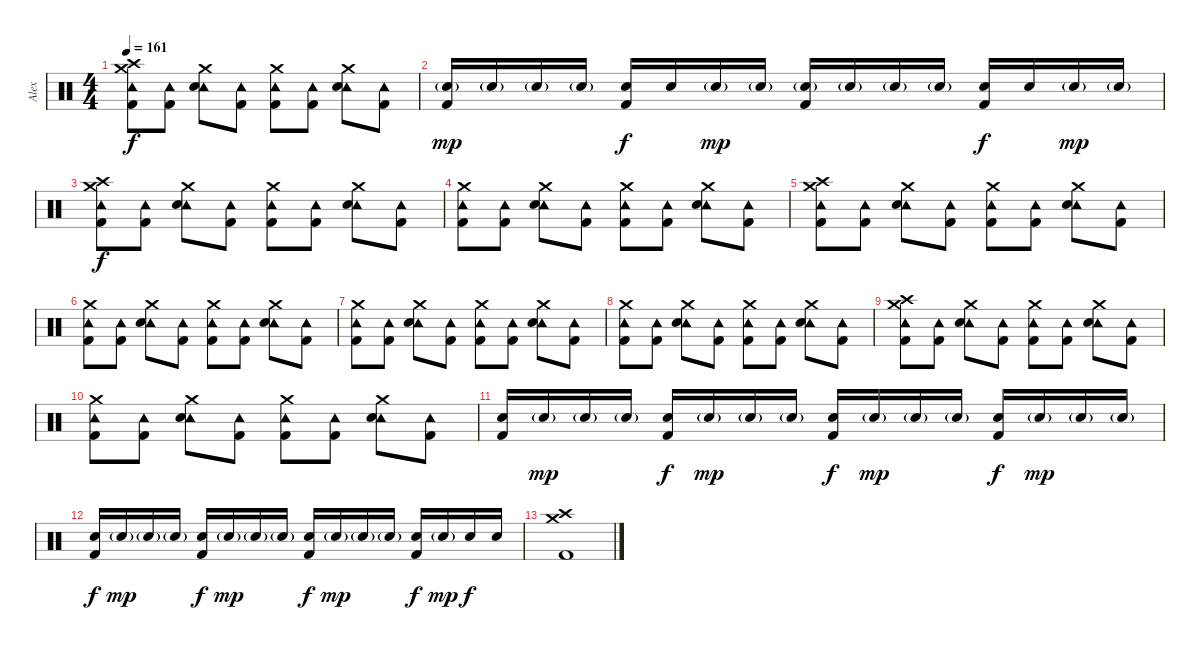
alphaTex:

\track ("Alex" "Alex") {instrument percussion}
\staff
\articulation defaults
\ts (4 4)
\tempo 161
\clef neutral
\ks c
("Crash medium (hit)" "Crash high (hit)" "Tambourine (hit)" "Kick (hit) 2").8{dy f} ("Tambourine (hit)" "Kick (hit) 2").8 ("Crash medium (hit)" "Tambourine (hit)" "Electric Snare (hit)").8 ("Tambourine (hit)" "Kick (hit) 2").8 ("Crash medium (hit)" "Tambourine (hit)" "Kick (hit) 2").8 ("Tambourine (hit)" "Kick (hit) 2").8 ("Crash medium (hit)" "Tambourine (hit)" "Electric Snare (hit)").8 ("Tambourine (hit)" "Kick (hit) 2").8 |
("Electric Snare (hit)"{g} "Kick (hit) 2").16{dy mp} "Electric Snare (hit)"{g}.16 "Electric Snare (hit)"{g}.16 "Electric Snare (hit)"{g}.16 ("Electric Snare (hit)" "Kick (hit) 2").16{dy f} "Electric Snare (hit)".16 "Electric Snare (hit)"{g}.16{dy mp} "Electric Snare (hit)"{g}.16 ("Electric Snare (hit)"{g} "Kick (hit) 2").16 "Electric Snare (hit)"{g}.16 "Electric Snare (hit)"{g}.16 "Electric Snare (hit)"{g}.16 ("Electric Snare (hit)" "Kick (hit) 2").16{dy f} "Electric Snare (hit)".16 "Electric Snare (hit)"{g}.16{dy mp} "Electric Snare (hit)"{g}.16 |
("Crash medium (hit)" "Crash high (hit)" "Tambourine (hit)" "Kick (hit) 2").8{dy f} ("Tambourine (hit)" "Kick (hit) 2").8 ("Crash medium (hit)" "Tambourine (hit)" "Electric Snare (hit)").8 ("Tambourine (hit)" "Kick (hit) 2").8 ("Crash medium (hit)" "Tambourine (hit)" "Kick (hit) 2").8 ("Tambourine (hit)" "Kick (hit) 2").8 ("Crash medium (hit)" "Tambourine (hit)" "Electric Snare (hit)").8 ("Tambourine (hit)" "Kick (hit) 2").8 |
("Crash medium (hit)" "Tambourine (hit)" "Kick (hit) 2").8 ("Tambourine (hit)" "Kick (hit) 2").8 ("Crash medium (hit)" "Tambourine (hit)" "Electric Snare (hit)").8 ("Tambourine (hit)" "Kick (hit) 2").8 ("Crash medium (hit)" "Tambourine (hit)" "Kick (hit) 2").8 ("Tambourine (hit)" "Kick (hit) 2").8 ("Crash medium (hit)" "Tambourine (hit)" "Electric Snare (hit)").8 ("Tambourine (hit)" "Kick (hit) 2").8 |
("Crash medium (hit)" "Crash high (hit)" "Tambourine (hit)" "Kick (hit) 2").8 ("Tambourine (hit)" "Kick (hit) 2").8 ("Crash medium (hit)" "Tambourine (hit)" "Electric Snare (hit)").8 ("Tambourine (hit)" "Kick (hit) 2").8 ("Crash medium (hit)" "Tambourine (hit)" "Kick (hit) 2").8 ("Tambourine (hit)" "Kick (hit) 2").8 ("Crash medium (hit)" "Tambourine (hit)" "Electric Snare (hit)").8 ("Tambourine (hit)" "Kick (hit) 2").8 |
("Crash medium (hit)" "Tambourine (hit)" "Kick (hit) 2").8 ("Tambourine (hit)" "Kick (hit) 2").8 ("Crash medium (hit)" "Tambourine (hit)" "Electric Snare (hit)").8 ("Tambourine (hit)" "Kick (hit) 2").8 ("Crash medium (hit)" "Tambourine (hit)" "Kick (hit) 2").8 ("Tambourine (hit)" "Kick (hit) 2").8 ("Crash medium (hit)" "Tambourine (hit)" "Electric Snare (hit)").8 ("Tambourine (hit)" "Kick (hit) 2").8 |
("Crash medium (hit)" "Tambourine (hit)" "Kick (hit) 2").8 ("Tambourine (hit)" "Kick (hit) 2").8 ("Crash medium (hit)" "Tambourine (hit)" "Electric Snare (hit)").8 ("Tambourine (hit)" "Kick (hit) 2").8 ("Crash medium (hit)" "Tambourine (hit)" "Kick (hit) 2").8 ("Tambourine (hit)" "Kick (hit) 2").8 ("Crash medium (hit)" "Tambourine (hit)" "Electric Snare (hit)").8 ("Tambourine (hit)" "Kick (hit) 2").8 |
("Crash medium (hit)" "Tambourine (hit)" "Kick (hit) 2").8 ("Tambourine (hit)" "Kick (hit) 2").8 ("Crash medium (hit)" "Tambourine (hit)" "Electric Snare (hit)").8 ("Tambourine (hit)" "Kick (hit) 2").8 ("Crash medium (hit)" "Tambourine (hit)" "Kick (hit) 2").8 ("Tambourine (hit)" "Kick (hit) 2").8 ("Crash medium (hit)" "Tambourine (hit)" "Electric Snare (hit)").8 ("Tambourine (hit)" "Kick (hit) 2").8 |
("Crash medium (hit)" "Crash high (hit)" "Tambourine (hit)" "Kick (hit) 2").8 ("Tambourine (hit)" "Kick (hit) 2").8 ("Crash medium (hit)" "Tambourine (hit)" "Electric Snare (hit)").8 ("Tambourine (hit)" "Kick (hit) 2").8 ("Crash medium (hit)" "Tambourine (hit)" "Kick (hit) 2").8 ("Tambourine (hit)" "Kick (hit) 2").8 ("Crash medium (hit)" "Tambourine (hit)" "Electric Snare (hit)").8 ("Tambourine (hit)" "Kick (hit) 2").8 |
("Crash medium (hit)" "Tambourine (hit)" "Kick (hit) 2").8 ("Tambourine (hit)" "Kick (hit) 2").8 ("Crash medium (hit)" "Tambourine (hit)" "Electric Snare (hit)").8 ("Tambourine (hit)" "Kick (hit) 2").8 ("Crash medium (hit)" "Tambourine (hit)" "Kick (hit) 2").8 ("Tambourine (hit)" "Kick (hit) 2").8 ("Crash medium (hit)" "Tambourine (hit)" "Electric Snare (hit)").8 ("Tambourine (hit)" "Kick (hit) 2").8 |
("Electric Snare (hit)" "Kick (hit) 2").16 "Electric Snare (hit)"{g}.16{dy mp} "Electric Snare (hit)"{g}.16 "Electric Snare (hit)"{g}.16 ("Electric Snare (hit)" "Kick (hit) 2").16{dy f} "Electric Snare (hit)"{g}.16{dy mp} "Electric Snare (hit)"{g}.16 "Electric Snare (hit)"{g}.16 ("Electric Snare (hit)" "Kick (hit) 2").16{dy f} "Electric Snare (hit)"{g}.16{dy mp} "Electric Snare (hit)"{g}.16 "Electric Snare (hit)"{g}.16 ("Electric Snare (hit)" "Kick (hit) 2").16{dy f} "Electric Snare (hit)"{g}.16{dy mp} "Electric Snare (hit)"{g}.16 "Electric Snare (hit)"{g}.16 |
("Electric Snare (hit)" "Kick (hit) 2").16{dy f} "Electric Snare (hit)"{g}.16{dy mp} "Electric Snare (hit)"{g}.16 "Electric Snare (hit)"{g}.16 ("Electric Snare (hit)" "Kick (hit) 2").16{dy f} "Electric Snare (hit)"{g}.16{dy mp} "Electric Snare (hit)"{g}.16 "Electric Snare (hit)"{g}.16 ("Electric Snare (hit)" "Kick (hit) 2").16{dy f} "Electric Snare (hit)"{g}.16{dy mp} "Electric Snare (hit)"{g}.16 "Electric Snare (hit)"{g}.16 ("Electric Snare (hit)" "Kick (hit) 2").16{dy f} "Electric Snare (hit)"{g}.16{dy mp} "Electric Snare (hit)".16{dy f} "Electric Snare (hit)".16 |
("Crash medium (hit)" "Crash high (hit)" "Kick (hit) 2").1
